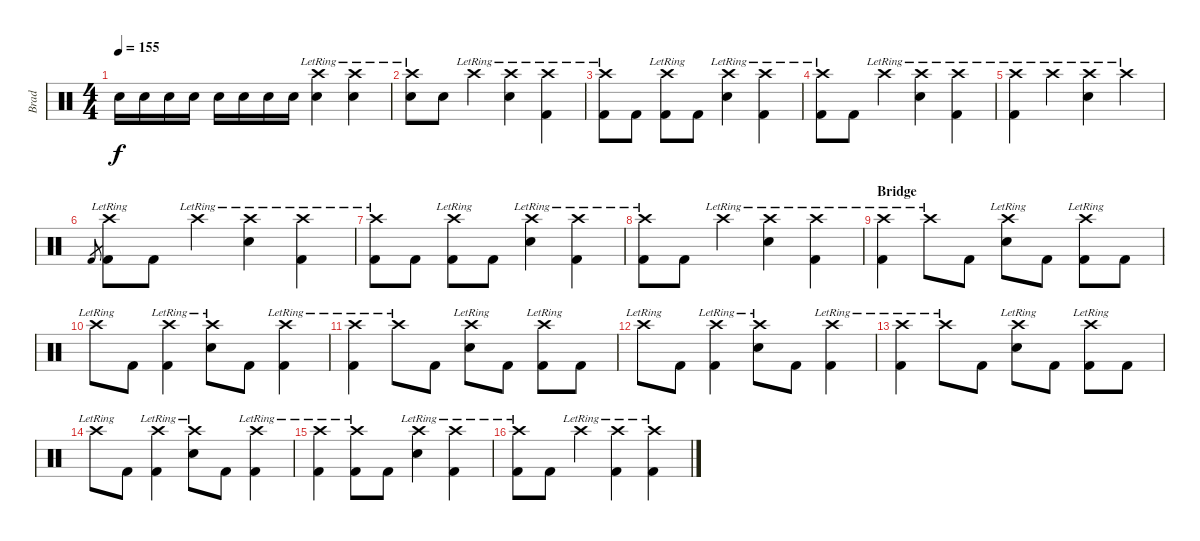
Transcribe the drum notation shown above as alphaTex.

\track ("Brad" "Brad") {instrument percussion}
\staff {score}
\articulation defaults
\ts (4 4)
\tempo 155
\clef neutral
\ks c "Snare (hit) 2".16{dy f} "Snare (hit) 2".16 "Snare (hit) 2".16 "Snare (hit) 2".16 "Snare (hit) 2".16 "Snare (hit) 2".16 "Snare (hit) 2".16 "Snare (hit) 2".16
("Crash high (hit)"{lr} "Electric Snare (hit)").4 ("Crash high (hit)"{lr} "Electric Snare (hit)").4 |
("Crash high (hit)"{lr} "Electric Snare (hit)").8 "Electric Snare (hit)".8 "Crash high (hit)"{lr}.4 ("Crash high (hit)"{lr} "Snare (hit) 2").4 ("Crash high (hit)"{lr} "Kick (hit) 2").4 |
("Crash high (hit)"{lr} "Kick (hit) 2").8 "Kick (hit) 2".8 ("Crash high (hit)"{lr} "Kick (hit) 2").8 "Kick (hit) 2".8 ("Crash high (hit)"{lr} "Electric Snare (hit)").4 ("Crash high (hit)"{lr} "Kick (hit) 2").4 |
("Crash high (hit)"{lr} "Kick (hit) 2").8 "Kick (hit) 2".8 "Crash high (hit)"{lr}.4 ("Crash high (hit)"{lr} "Electric Snare (hit)").4 ("Crash high (hit)"{lr} "Kick (hit) 2").4 |
("Crash high (hit)"{lr} "Kick (hit) 2").4 "Crash high (hit)"{lr}.4 ("Crash high (hit)"{lr} "Electric Snare (hit)").4 "Crash high (hit)"{lr}.4 |
"Kick (hit) 2".8{gr} ("Crash high (hit)"{lr} "Kick (hit) 2").8 "Kick (hit) 2".8 "Crash high (hit)"{lr}.4 ("Crash high (hit)"{lr} "Electric Snare (hit)").4 ("Crash high (hit)"{lr} "Kick (hit) 2").4 |
("Crash high (hit)"{lr} "Kick (hit) 2").8 "Kick (hit) 2".8 ("Crash high (hit)"{lr} "Kick (hit) 2").8 "Kick (hit) 2".8 ("Crash high (hit)"{lr} "Electric Snare (hit)").4 ("Crash high (hit)"{lr} "Kick (hit) 2").4 |
("Crash high (hit)"{lr} "Kick (hit) 2").8 "Kick (hit) 2".8 "Crash high (hit)"{lr}.4 ("Crash high (hit)"{lr} "Electric Snare (hit)").4 ("Crash high (hit)"{lr} "Kick (hit) 2").4 |
\section ("" "Bridge")
("Crash high (hit)"{lr} "Kick (hit) 2").4 "Crash high (hit)"{lr}.8 "Kick (hit) 2".8 ("Crash high (hit)"{lr} "Electric Snare (hit)").8 "Kick (hit) 2".8 ("Crash high (hit)"{lr} "Kick (hit) 2").8 "Kick (hit) 2".8 |
"Crash high (hit)"{lr}.8 "Kick (hit) 2".8 ("Crash high (hit)"{lr} "Kick (hit) 2").4 ("Crash high (hit)"{lr} "Electric Snare (hit)").8 "Kick (hit) 2".8 ("Crash high (hit)"{lr} "Kick (hit) 2").4 |
("Crash high (hit)"{lr} "Kick (hit) 2").4 "Crash high (hit)"{lr}.8 "Kick (hit) 2".8 ("Crash high (hit)"{lr} "Electric Snare (hit)").8 "Kick (hit) 2".8 ("Crash high (hit)"{lr} "Kick (hit) 2").8 "Kick (hit) 2".8 |
"Crash high (hit)"{lr}.8 "Kick (hit) 2".8 ("Crash high (hit)"{lr} "Kick (hit) 2").4 ("Crash high (hit)"{lr} "Electric Snare (hit)").8 "Kick (hit) 2".8 ("Crash high (hit)"{lr} "Kick (hit) 2").4 |
("Crash high (hit)"{lr} "Kick (hit) 2").4 "Crash high (hit)"{lr}.8 "Kick (hit) 2".8 ("Crash high (hit)"{lr} "Electric Snare (hit)").8 "Kick (hit) 2".8 ("Crash high (hit)"{lr} "Kick (hit) 2").8 "Kick (hit) 2".8 |
"Crash high (hit)"{lr}.8 "Kick (hit) 2".8 ("Crash high (hit)"{lr} "Kick (hit) 2").4 ("Crash high (hit)"{lr} "Electric Snare (hit)").8 "Kick (hit) 2".8 ("Crash high (hit)"{lr} "Kick (hit) 2").4 |
("Crash high (hit)"{lr} "Kick (hit) 2").4 ("Crash high (hit)"{lr} "Kick (hit) 2").8 "Kick (hit) 2".8 ("Crash high (hit)"{lr} "Electric Snare (hit)").4 ("Crash high (hit)"{lr} "Kick (hit) 2").4 |
("Crash high (hit)"{lr} "Kick (hit) 2").8 "Kick (hit) 2".8 "Crash high (hit)"{lr}.4 ("Crash high (hit)"{lr} "Kick (hit) 2").4 ("Crash high (hit)"{lr} "Kick (hit) 2").4
